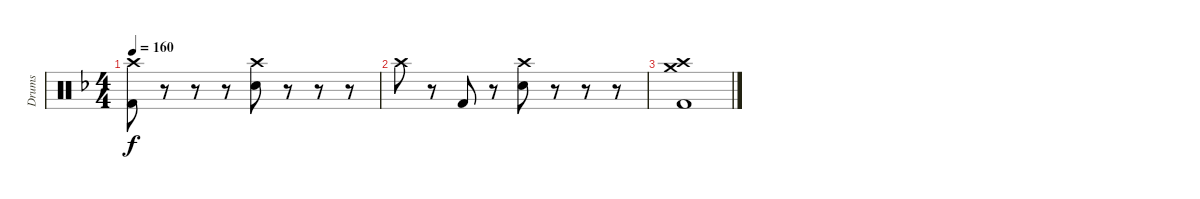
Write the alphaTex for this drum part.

\track ("Drums" "Drums") {instrument percussion}
\staff {score}
\articulation defaults
\ts (4 4)
\tempo 160
\clef neutral
\ks dminor
("Crash high (hit)" "Kick (hit) 2").8{dy f} r.8 r.8 r.8 ("Crash high (hit)" "Electric Snare (hit)").8 r.8 r.8 r.8 |
"Crash high (hit)".8 r.8 "Kick (hit) 2".8 r.8 ("Crash high (hit)" "Electric Snare (hit)").8 r.8 r.8 r.8 |
("Crash high (hit)" "Crash medium (hit)" "Kick (hit) 2").1
